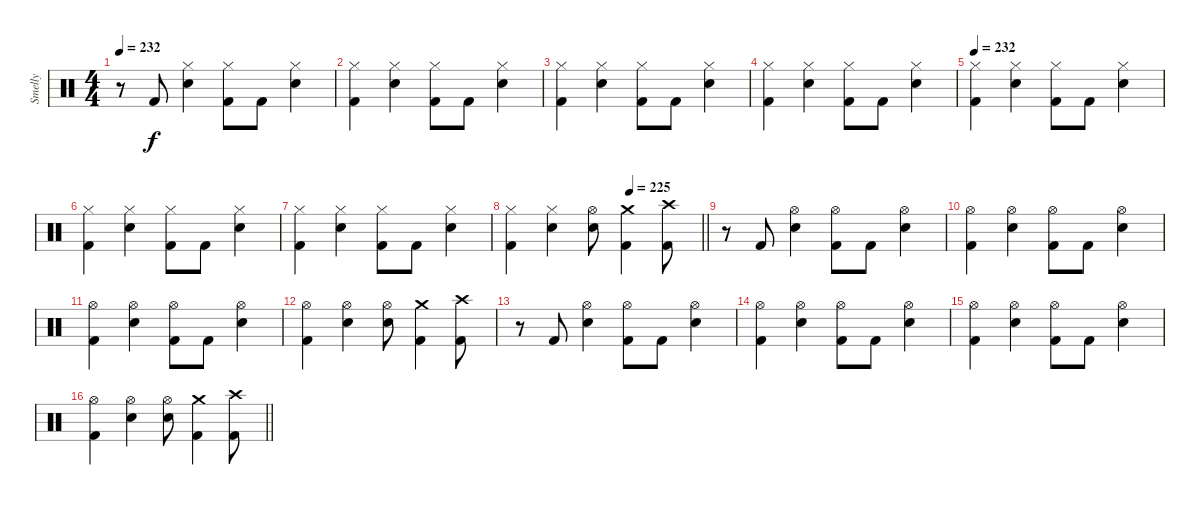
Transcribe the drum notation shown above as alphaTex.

\track ("Smelly" "Smelly") {instrument percussion}
\staff {score}
\articulation defaults
\ts (4 4)
\tempo 232
\clef neutral
\ks c
r.8{dy f} "Kick (hit) 2".8 ("Hi-Hat (closed)" "Electric Snare (hit)").4 ("Hi-Hat (closed)" "Kick (hit) 2").8 "Kick (hit) 2".8 ("Hi-Hat (closed)" "Electric Snare (hit)").4 |
("Hi-Hat (closed)" "Kick (hit) 2").4 ("Hi-Hat (closed)" "Electric Snare (hit)").4 ("Hi-Hat (closed)" "Kick (hit) 2").8 "Kick (hit) 2".8 ("Hi-Hat (closed)" "Electric Snare (hit)").4 |
("Hi-Hat (closed)" "Kick (hit) 2").4 ("Hi-Hat (closed)" "Electric Snare (hit)").4 ("Hi-Hat (closed)" "Kick (hit) 2").8 "Kick (hit) 2".8 ("Hi-Hat (closed)" "Electric Snare (hit)").4 |
("Hi-Hat (closed)" "Kick (hit) 2").4 ("Hi-Hat (closed)" "Electric Snare (hit)").4 ("Hi-Hat (closed)" "Kick (hit) 2").8 "Kick (hit) 2".8 ("Hi-Hat (closed)" "Electric Snare (hit)").4 |
\tempo 232
("Hi-Hat (closed)" "Kick (hit) 2").4 ("Hi-Hat (closed)" "Electric Snare (hit)").4 ("Hi-Hat (closed)" "Kick (hit) 2").8 "Kick (hit) 2".8 ("Hi-Hat (closed)" "Electric Snare (hit)").4 |
("Hi-Hat (closed)" "Kick (hit) 2").4 ("Hi-Hat (closed)" "Electric Snare (hit)").4 ("Hi-Hat (closed)" "Kick (hit) 2").8 "Kick (hit) 2".8 ("Hi-Hat (closed)" "Electric Snare (hit)").4 |
("Hi-Hat (closed)" "Kick (hit) 2").4 ("Hi-Hat (closed)" "Electric Snare (hit)").4 ("Hi-Hat (closed)" "Kick (hit) 2").8 "Kick (hit) 2".8 ("Hi-Hat (closed)" "Electric Snare (hit)").4 |
\tempo (225 0.625)
\barLineRight lightlight
("Hi-Hat (closed)" "Kick (hit) 2").4 ("Hi-Hat (closed)" "Electric Snare (hit)").4 ("Hi-Hat (open)" "Electric Snare (hit)").8 ("Crash medium (hit)" "Kick (hit) 2").4 ("Crash high (hit)" "Kick (hit) 2").8 |
\section ("" "")
r.8 "Kick (hit) 2".8 ("Hi-Hat (open)" "Electric Snare (hit)").4 ("Hi-Hat (open)" "Kick (hit) 2").8 "Kick (hit) 2".8 ("Hi-Hat (open)" "Electric Snare (hit)").4 |
("Hi-Hat (open)" "Kick (hit) 2").4 ("Hi-Hat (open)" "Electric Snare (hit)").4 ("Hi-Hat (open)" "Kick (hit) 2").8 "Kick (hit) 2".8 ("Hi-Hat (open)" "Electric Snare (hit)").4 |
("Hi-Hat (open)" "Kick (hit) 2").4 ("Hi-Hat (open)" "Electric Snare (hit)").4 ("Hi-Hat (open)" "Kick (hit) 2").8 "Kick (hit) 2".8 ("Hi-Hat (open)" "Electric Snare (hit)").4 |
("Hi-Hat (open)" "Kick (hit) 2").4 ("Hi-Hat (open)" "Electric Snare (hit)").4 ("Hi-Hat (open)" "Electric Snare (hit)").8 ("Crash medium (hit)" "Kick (hit) 2").4 ("Crash high (hit)" "Kick (hit) 2").8 |
r.8 "Kick (hit) 2".8 ("Hi-Hat (open)" "Electric Snare (hit)").4 ("Hi-Hat (open)" "Kick (hit) 2").8 "Kick (hit) 2".8 ("Hi-Hat (open)" "Electric Snare (hit)").4 |
("Hi-Hat (open)" "Kick (hit) 2").4 ("Hi-Hat (open)" "Electric Snare (hit)").4 ("Hi-Hat (open)" "Kick (hit) 2").8 "Kick (hit) 2".8 ("Hi-Hat (open)" "Electric Snare (hit)").4 |
("Hi-Hat (open)" "Kick (hit) 2").4 ("Hi-Hat (open)" "Electric Snare (hit)").4 ("Hi-Hat (open)" "Kick (hit) 2").8 "Kick (hit) 2".8 ("Hi-Hat (open)" "Electric Snare (hit)").4 |
\barLineRight lightlight
("Hi-Hat (open)" "Kick (hit) 2").4 ("Hi-Hat (open)" "Electric Snare (hit)").4 ("Hi-Hat (open)" "Electric Snare (hit)").8 ("Crash medium (hit)" "Kick (hit) 2").4 ("Crash high (hit)" "Kick (hit) 2").8
